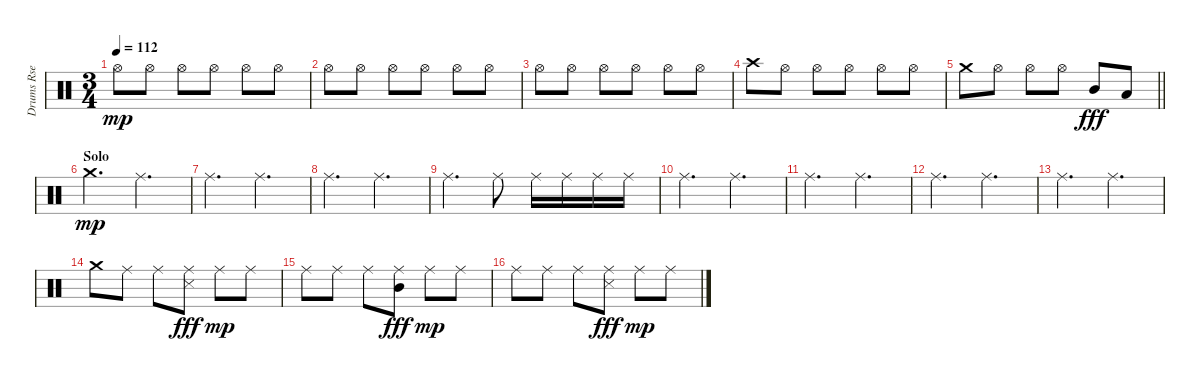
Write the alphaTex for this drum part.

\track ("Drums Rse" "Drums Rse") {instrument percussion}
\staff {score}
\articulation defaults
\ts (3 4)
\tempo 112
\clef neutral
\ks c "Hi-Hat (open)".8{dy mp} "Hi-Hat (open)".8 "Hi-Hat (open)".8 "Hi-Hat (open)".8 "Hi-Hat (open)".8 "Hi-Hat (open)".8
|
"Hi-Hat (open)".8 "Hi-Hat (open)".8 "Hi-Hat (open)".8 "Hi-Hat (open)".8 "Hi-Hat (open)".8 "Hi-Hat (open)".8 |
"Hi-Hat (open)".8 "Hi-Hat (open)".8 "Hi-Hat (open)".8 "Hi-Hat (open)".8 "Hi-Hat (open)".8 "Hi-Hat (open)".8 |
"Crash high (hit)".8 "Hi-Hat (open)".8 "Hi-Hat (open)".8 "Hi-Hat (open)".8 "Hi-Hat (open)".8 "Hi-Hat (open)".8 |
\barLineRight lightlight "Crash medium (hit)".8 "Hi-Hat (open)".8 "Hi-Hat (open)".8 "Hi-Hat (open)".8 "Mid Tom (hit)".8{dy fff} "Low Tom (hit)".8
|
\section ("" "Solo")
"Crash medium (hit)".4{d dy mp} "Ride (middle)".4{d} |
"Ride (middle)".4{d} "Ride (middle)".4{d} |
"Ride (middle)".4{d} "Ride (middle)".4{d} |
"Ride (middle)".4{d} "Ride (middle)".8 "Ride (middle)".16 "Ride (middle)".16 "Ride (middle)".16 "Ride (middle)".16 |
"Ride (middle)".4{d} "Ride (middle)".4{d} |
"Ride (middle)".4{d} "Ride (middle)".4{d} |
"Ride (middle)".4{d} "Ride (middle)".4{d} |
"Ride (middle)".4{d} "Ride (middle)".4{d} |
"Crash medium (hit)".8 "Ride (middle)".8 "Ride (middle)".8 ("Ride (middle)" "Metronome (hit)").8{dy fff} "Ride (middle)".8{dy mp} "Ride (middle)".8 |
"Ride (middle)".8 "Ride (middle)".8 "Ride (middle)".8 ("Ride (middle)" "Mid Tom (hit)").8{dy fff} "Ride (middle)".8{dy mp} "Ride (middle)".8 |
"Ride (middle)".8 "Ride (middle)".8 "Ride (middle)".8 ("Ride (middle)" "Metronome (hit)").8{dy fff} "Ride (middle)".8{dy mp} "Ride (middle)".8
